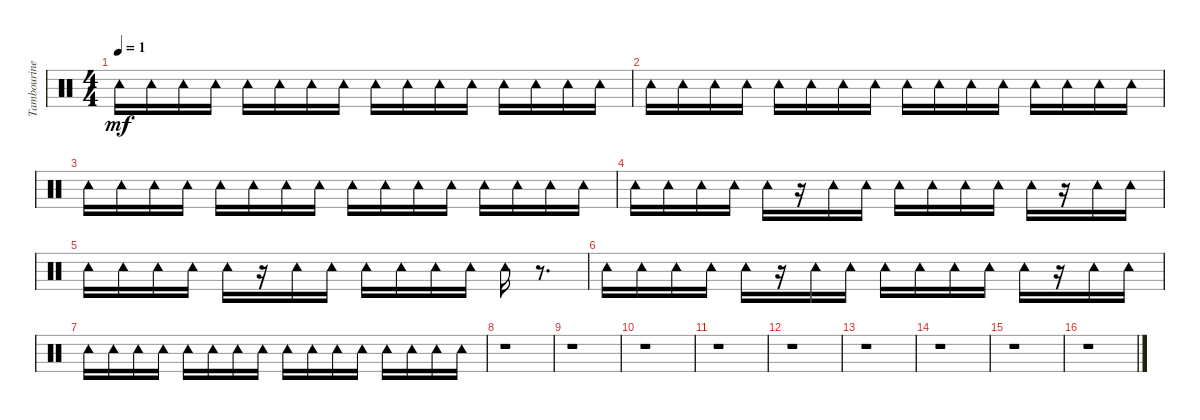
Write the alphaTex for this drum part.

\track ("Tambourine" "Tambourine") {instrument percussion}
\staff {score}
\articulation defaults
\ts (4 4)
\tempo 1
\clef neutral
\ks c "Tambourine (hit)".16{dy mf} "Tambourine (hit)".16 "Tambourine (hit)".16 "Tambourine (hit)".16 "Tambourine (hit)".16 "Tambourine (hit)".16 "Tambourine (hit)".16 "Tambourine (hit)".16 "Tambourine (hit)".16 "Tambourine (hit)".16 "Tambourine (hit)".16 "Tambourine (hit)".16 "Tambourine (hit)".16 "Tambourine (hit)".16 "Tambourine (hit)".16 "Tambourine (hit)".16
|
"Tambourine (hit)".16 "Tambourine (hit)".16 "Tambourine (hit)".16 "Tambourine (hit)".16 "Tambourine (hit)".16 "Tambourine (hit)".16 "Tambourine (hit)".16 "Tambourine (hit)".16 "Tambourine (hit)".16 "Tambourine (hit)".16 "Tambourine (hit)".16 "Tambourine (hit)".16 "Tambourine (hit)".16 "Tambourine (hit)".16 "Tambourine (hit)".16 "Tambourine (hit)".16 |
"Tambourine (hit)".16 "Tambourine (hit)".16 "Tambourine (hit)".16 "Tambourine (hit)".16 "Tambourine (hit)".16 "Tambourine (hit)".16 "Tambourine (hit)".16 "Tambourine (hit)".16 "Tambourine (hit)".16 "Tambourine (hit)".16 "Tambourine (hit)".16 "Tambourine (hit)".16 "Tambourine (hit)".16 "Tambourine (hit)".16 "Tambourine (hit)".16 "Tambourine (hit)".16 |
"Tambourine (hit)".16 "Tambourine (hit)".16 "Tambourine (hit)".16 "Tambourine (hit)".16 "Tambourine (hit)".16 r.16 "Tambourine (hit)".16 "Tambourine (hit)".16 "Tambourine (hit)".16 "Tambourine (hit)".16 "Tambourine (hit)".16 "Tambourine (hit)".16 "Tambourine (hit)".16 r.16 "Tambourine (hit)".16 "Tambourine (hit)".16 |
"Tambourine (hit)".16 "Tambourine (hit)".16 "Tambourine (hit)".16 "Tambourine (hit)".16 "Tambourine (hit)".16 r.16 "Tambourine (hit)".16 "Tambourine (hit)".16 "Tambourine (hit)".16 "Tambourine (hit)".16 "Tambourine (hit)".16 "Tambourine (hit)".16 "Tambourine (hit)".16 r.8{d} |
"Tambourine (hit)".16 "Tambourine (hit)".16 "Tambourine (hit)".16 "Tambourine (hit)".16 "Tambourine (hit)".16 r.16 "Tambourine (hit)".16 "Tambourine (hit)".16 "Tambourine (hit)".16 "Tambourine (hit)".16 "Tambourine (hit)".16 "Tambourine (hit)".16 "Tambourine (hit)".16 r.16 "Tambourine (hit)".16 "Tambourine (hit)".16 |
"Tambourine (hit)".16 "Tambourine (hit)".16 "Tambourine (hit)".16 "Tambourine (hit)".16 "Tambourine (hit)".16 "Tambourine (hit)".16 "Tambourine (hit)".16 "Tambourine (hit)".16 "Tambourine (hit)".16 "Tambourine (hit)".16 "Tambourine (hit)".16 "Tambourine (hit)".16 "Tambourine (hit)".16 "Tambourine (hit)".16 "Tambourine (hit)".16 "Tambourine (hit)".16 |
r.1 |
r.1 |
r.1 |
r.1 |
r.1 |
r.1 |
r.1 |
r.1 |
r.1
